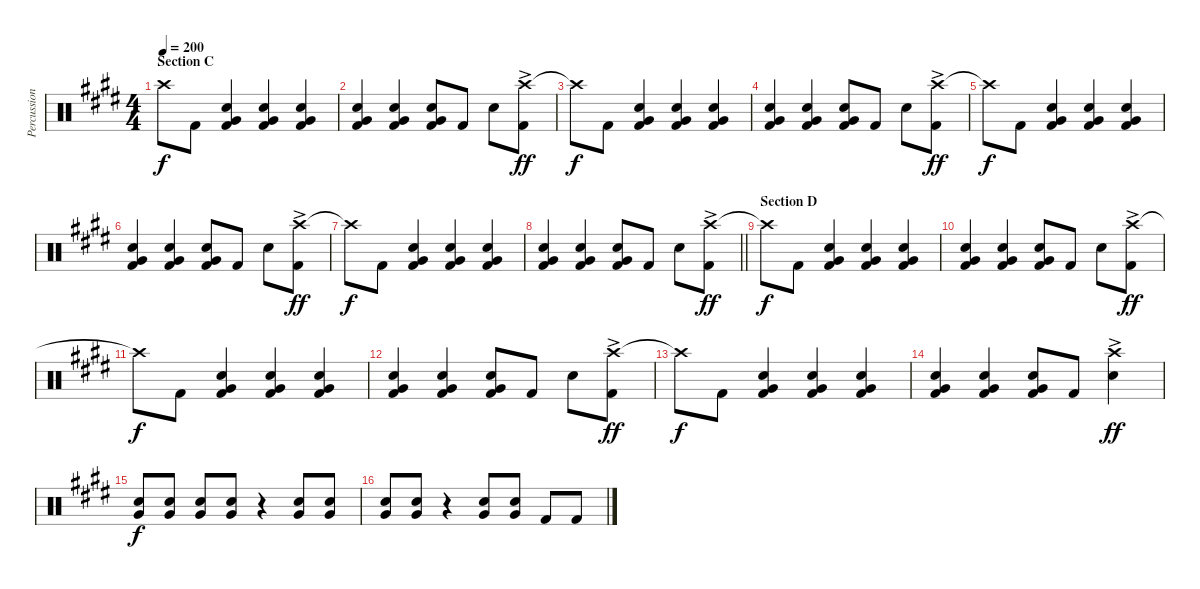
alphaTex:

\track ("Percussion - other" "Percussion") {instrument percussion}
\staff {score}
\articulation defaults
\ts (4 4)
\section ("" "Section C")
\tempo 200
\clef neutral
\ks e "Crash high (hit)"{t}.8{dy f} "Kick (hit) 2".8
("Snare (hit) 2" "Very Low Tom (hit)" "Kick (hit) 2").4 ("Snare (hit) 2" "Very Low Tom (hit)" "Kick (hit) 2").4 ("Snare (hit) 2" "Very Low Tom (hit)" "Kick (hit) 2").4 |
("Snare (hit) 2" "Very Low Tom (hit)" "Kick (hit) 2").4 ("Snare (hit) 2" "Very Low Tom (hit)" "Kick (hit) 2").4 ("Snare (hit) 2" "Very Low Tom (hit)" "Kick (hit) 2").8 "Kick (hit) 2".8 "Snare (hit) 2".8 ("Crash high (hit)"{ac} "Kick (hit) 2").8{dy ff} |
"Crash high (hit)"{t}.8{dy f} "Kick (hit) 2".8 ("Snare (hit) 2" "Very Low Tom (hit)" "Kick (hit) 2").4 ("Snare (hit) 2" "Very Low Tom (hit)" "Kick (hit) 2").4 ("Snare (hit) 2" "Very Low Tom (hit)" "Kick (hit) 2").4 |
("Snare (hit) 2" "Very Low Tom (hit)" "Kick (hit) 2").4 ("Snare (hit) 2" "Very Low Tom (hit)" "Kick (hit) 2").4 ("Snare (hit) 2" "Very Low Tom (hit)" "Kick (hit) 2").8 "Kick (hit) 2".8 "Snare (hit) 2".8 ("Crash high (hit)"{ac} "Kick (hit) 2").8{dy ff} |
"Crash high (hit)"{t}.8{dy f} "Kick (hit) 2".8 ("Snare (hit) 2" "Very Low Tom (hit)" "Kick (hit) 2").4 ("Snare (hit) 2" "Very Low Tom (hit)" "Kick (hit) 2").4 ("Snare (hit) 2" "Very Low Tom (hit)" "Kick (hit) 2").4 |
("Snare (hit) 2" "Very Low Tom (hit)" "Kick (hit) 2").4 ("Snare (hit) 2" "Very Low Tom (hit)" "Kick (hit) 2").4 ("Snare (hit) 2" "Very Low Tom (hit)" "Kick (hit) 2").8 "Kick (hit) 2".8 "Snare (hit) 2".8 ("Crash high (hit)"{ac} "Kick (hit) 2").8{dy ff} |
"Crash high (hit)"{t}.8{dy f} "Kick (hit) 2".8 ("Snare (hit) 2" "Very Low Tom (hit)" "Kick (hit) 2").4 ("Snare (hit) 2" "Very Low Tom (hit)" "Kick (hit) 2").4 ("Snare (hit) 2" "Very Low Tom (hit)" "Kick (hit) 2").4 |
\barLineRight lightlight
("Snare (hit) 2" "Very Low Tom (hit)" "Kick (hit) 2").4 ("Snare (hit) 2" "Very Low Tom (hit)" "Kick (hit) 2").4 ("Snare (hit) 2" "Very Low Tom (hit)" "Kick (hit) 2").8 "Kick (hit) 2".8 "Snare (hit) 2".8 ("Crash high (hit)"{ac} "Kick (hit) 2").8{dy ff} |
\section ("" "Section D")
"Crash high (hit)"{t}.8{dy f} "Kick (hit) 2".8 ("Snare (hit) 2" "Very Low Tom (hit)" "Kick (hit) 2").4 ("Snare (hit) 2" "Very Low Tom (hit)" "Kick (hit) 2").4 ("Snare (hit) 2" "Very Low Tom (hit)" "Kick (hit) 2").4 |
("Snare (hit) 2" "Very Low Tom (hit)" "Kick (hit) 2").4 ("Snare (hit) 2" "Very Low Tom (hit)" "Kick (hit) 2").4 ("Snare (hit) 2" "Very Low Tom (hit)" "Kick (hit) 2").8 "Kick (hit) 2".8 "Snare (hit) 2".8 ("Crash high (hit)"{ac} "Kick (hit) 2").8{dy ff} |
"Crash high (hit)"{t}.8{dy f} "Kick (hit) 2".8 ("Snare (hit) 2" "Very Low Tom (hit)" "Kick (hit) 2").4 ("Snare (hit) 2" "Very Low Tom (hit)" "Kick (hit) 2").4 ("Snare (hit) 2" "Very Low Tom (hit)" "Kick (hit) 2").4 |
("Snare (hit) 2" "Very Low Tom (hit)" "Kick (hit) 2").4 ("Snare (hit) 2" "Very Low Tom (hit)" "Kick (hit) 2").4 ("Snare (hit) 2" "Very Low Tom (hit)" "Kick (hit) 2").8 "Kick (hit) 2".8 "Snare (hit) 2".8 ("Crash high (hit)"{ac} "Kick (hit) 2").8{dy ff} |
"Crash high (hit)"{t}.8{dy f} "Kick (hit) 2".8 ("Snare (hit) 2" "Very Low Tom (hit)" "Kick (hit) 2").4 ("Snare (hit) 2" "Very Low Tom (hit)" "Kick (hit) 2").4 ("Snare (hit) 2" "Very Low Tom (hit)" "Kick (hit) 2").4 |
("Snare (hit) 2" "Very Low Tom (hit)" "Kick (hit) 2").4 ("Snare (hit) 2" "Very Low Tom (hit)" "Kick (hit) 2").4 ("Snare (hit) 2" "Very Low Tom (hit)" "Kick (hit) 2").8 "Kick (hit) 2".8 ("Crash high (hit)"{ac} "Snare (hit) 2").4{dy ff} |
("Snare (hit) 2" "Very Low Tom (hit)").8{dy f} ("Snare (hit) 2" "Very Low Tom (hit)").8 ("Snare (hit) 2" "Very Low Tom (hit)").8 ("Snare (hit) 2" "Very Low Tom (hit)").8 r.4 ("Snare (hit) 2" "Very Low Tom (hit)").8 ("Snare (hit) 2" "Very Low Tom (hit)").8 |
("Snare (hit) 2" "Very Low Tom (hit)").8 ("Snare (hit) 2" "Very Low Tom (hit)").8 r.4 ("Snare (hit) 2" "Very Low Tom (hit)").8 ("Snare (hit) 2" "Very Low Tom (hit)").8 "Kick (hit) 2".8 "Kick (hit) 2".8
